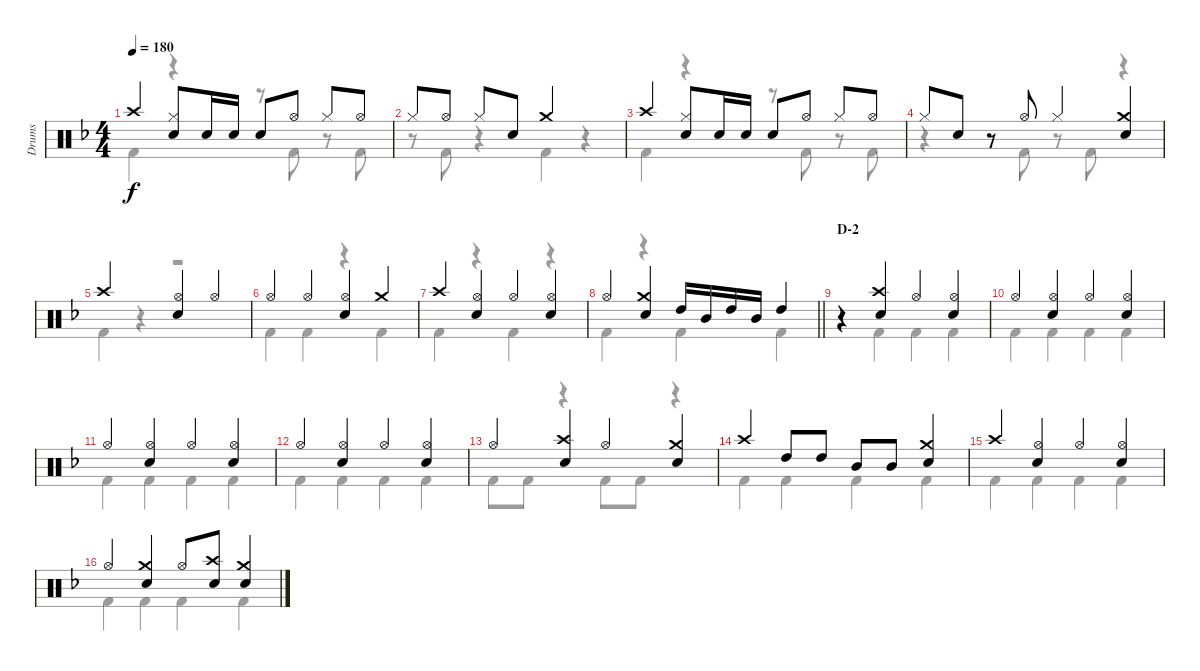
\track ("Drums" "Drums") {instrument percussion}
\staff {score}
\articulation defaults
\voice
\ts (4 4)
\tempo 180
\clef neutral
\ks f "Crash high (hit)".4{dy f}
("Hi-Hat (closed)" "Snare (hit) 2").8 "Snare (hit) 2".16 "Snare (hit) 2".16 "Snare (hit) 2".8 "Hi-Hat (open)".8 "Hi-Hat (closed)".8 "Hi-Hat (open)".8 |
"Hi-Hat (closed)".8 "Hi-Hat (open)".8 "Hi-Hat (closed)".8 "Snare (hit) 2".8 "Crash medium (hit)".2 |
"Crash high (hit)".4 ("Hi-Hat (closed)" "Snare (hit) 2").8 "Snare (hit) 2".16 "Snare (hit) 2".16 "Snare (hit) 2".8 "Hi-Hat (open)".8 "Hi-Hat (closed)".8 "Hi-Hat (open)".8 |
"Hi-Hat (closed)".8 "Snare (hit) 2".8 r.8 "Hi-Hat (open)".8 "Hi-Hat (closed)".4 ("Crash medium (hit)" "Snare (hit) 2").4 |
"Crash high (hit)".2 ("Hi-Hat (open)" "Snare (hit) 2").4 "Hi-Hat (open)".4 |
"Hi-Hat (open)".4 "Hi-Hat (open)".4 ("Hi-Hat (open)" "Snare (hit) 2").4 "Crash medium (hit)".4 |
"Crash high (hit)".4 ("Hi-Hat (open)" "Snare (hit) 2").4 "Hi-Hat (open)".4 ("Hi-Hat (open)" "Snare (hit) 2").4 |
\barLineRight lightlight "Hi-Hat (open)".4
("Crash medium (hit)" "Snare (hit) 2").4 "High Tom (hit)".16 "Mid Tom (hit)".16 "High Tom (hit)".16 "Mid Tom (hit)".16 "High Tom (hit)".4 |
\section ("" "D-2")
r.4 ("Crash high (hit)" "Snare (hit) 2").4 "Hi-Hat (open)".4 ("Hi-Hat (open)" "Snare (hit) 2").4 |
"Hi-Hat (open)".4 ("Hi-Hat (open)" "Snare (hit) 2").4 "Hi-Hat (open)".4 ("Hi-Hat (open)" "Snare (hit) 2").4 |
"Hi-Hat (open)".4 ("Hi-Hat (open)" "Snare (hit) 2").4 "Hi-Hat (open)".4 ("Hi-Hat (open)" "Snare (hit) 2").4 |
"Hi-Hat (open)".4 ("Hi-Hat (open)" "Snare (hit) 2").4 "Hi-Hat (open)".4 ("Hi-Hat (open)" "Snare (hit) 2").4 |
"Hi-Hat (open)".4 ("Crash high (hit)" "Snare (hit) 2").4 "Hi-Hat (open)".4 ("Crash medium (hit)" "Snare (hit) 2").4 |
"Crash high (hit)".4 "High Tom (hit)".8 "High Tom (hit)".8 "Mid Tom (hit)".8 "Mid Tom (hit)".8 ("Crash medium (hit)" "Snare (hit) 2").4 |
"Crash high (hit)".4 ("Hi-Hat (open)" "Snare (hit) 2").4 "Hi-Hat (open)".4 ("Hi-Hat (open)" "Snare (hit) 2").4 |
"Hi-Hat (open)".4 ("Crash medium (hit)" "Snare (hit) 2").4 "Hi-Hat (open)".8 ("Crash high (hit)" "Snare (hit) 2").8 ("Crash medium (hit)" "Snare (hit) 2").4
\voice
\clef neutral
\ottava regular
\simile none
\ks f "Kick (hit) 2".4{dy f}
r.4 r.8 "Kick (hit) 2".8 r.8 "Kick (hit) 2".8 |
r.8 "Kick (hit) 2".8 r.4 "Kick (hit) 2".4 r.4 |
"Kick (hit) 2".4 r.4 r.8 "Kick (hit) 2".8 r.8 "Kick (hit) 2".8 |
r.4 r.8 "Kick (hit) 2".8 r.8 "Kick (hit) 2".8 r.4 |
"Kick (hit) 2".4 r.4 r.2 |
"Kick (hit) 2".4 "Kick (hit) 2".4 r.4 "Kick (hit) 2".4 |
"Kick (hit) 2".4 r.4 "Kick (hit) 2".4 r.4 |
\barLineRight lightlight "Kick (hit) 2".4
r.4 "Kick (hit) 2".4 "Kick (hit) 2".4 |
r.4 "Kick (hit) 2".4 "Kick (hit) 2".4 "Kick (hit) 2".4 |
"Kick (hit) 2".4 "Kick (hit) 2".4 "Kick (hit) 2".4 "Kick (hit) 2".4 |
"Kick (hit) 2".4 "Kick (hit) 2".4 "Kick (hit) 2".4 "Kick (hit) 2".4 |
"Kick (hit) 2".4 "Kick (hit) 2".4 "Kick (hit) 2".4 "Kick (hit) 2".4 |
"Kick (hit) 2".8 "Kick (hit) 2".8 r.4 "Kick (hit) 2".8 "Kick (hit) 2".8 r.4 |
"Kick (hit) 2".4 "Kick (hit) 2".4 "Kick (hit) 2".4 "Kick (hit) 2".4 |
"Kick (hit) 2".4 "Kick (hit) 2".4 "Kick (hit) 2".4 "Kick (hit) 2".4 |
"Kick (hit) 2".4 "Kick (hit) 2".4 "Kick (hit) 2".4 "Kick (hit) 2".4
